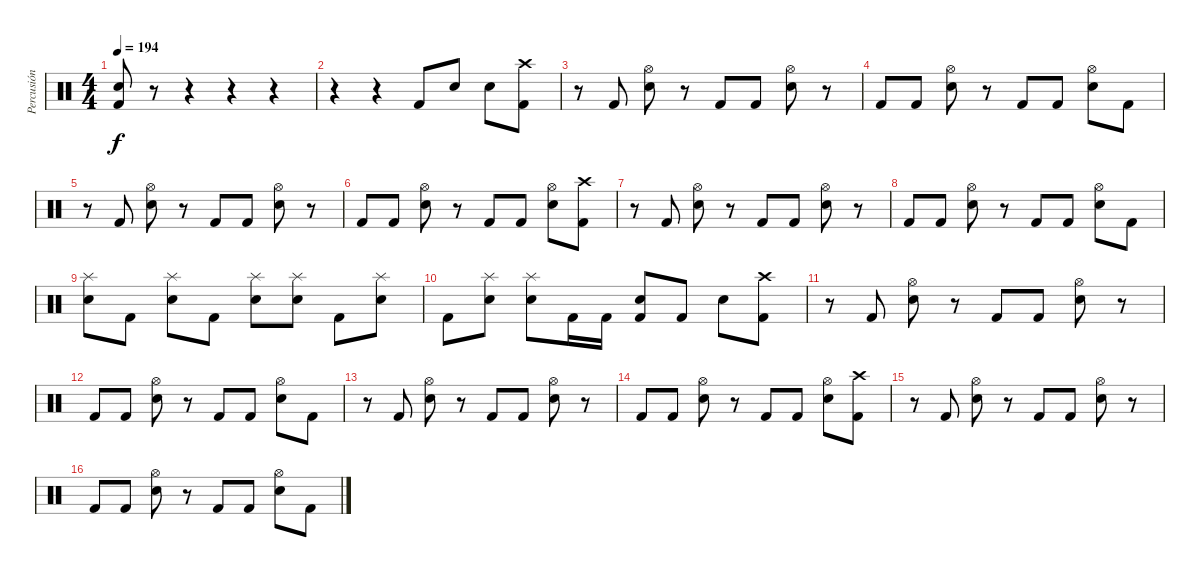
\track ("Percusión" "Percusión") {instrument percussion}
\staff {score}
\articulation defaults
\ts (4 4)
\tempo 194
\clef neutral
\ks c
("Kick (hit) 2" "Snare (hit) 2").8{dy f} r.8 r.4 r.4 r.4 |
r.4 r.4 "Kick (hit) 2".8 "Snare (hit) 2".8 "Snare (hit) 2".8 ("Kick (hit) 2" "Crash high (hit)").8 |
r.8 "Kick (hit) 2".8 ("Snare (hit) 2" "Hi-Hat (open)").8 r.8 "Kick (hit) 2".8 "Kick (hit) 2".8 ("Snare (hit) 2" "Hi-Hat (open)").8 r.8 |
"Kick (hit) 2".8 "Kick (hit) 2".8 ("Snare (hit) 2" "Hi-Hat (open)").8 r.8 "Kick (hit) 2".8 "Kick (hit) 2".8 ("Snare (hit) 2" "Hi-Hat (open)").8 "Kick (hit) 2".8 |
r.8 "Kick (hit) 2".8 ("Snare (hit) 2" "Hi-Hat (open)").8 r.8 "Kick (hit) 2".8 "Kick (hit) 2".8 ("Snare (hit) 2" "Hi-Hat (open)").8 r.8 |
"Kick (hit) 2".8 "Kick (hit) 2".8 ("Snare (hit) 2" "Hi-Hat (open)").8 r.8 "Kick (hit) 2".8 "Kick (hit) 2".8 ("Snare (hit) 2" "Hi-Hat (open)").8 ("Kick (hit) 2" "Crash high (hit)").8 |
r.8 "Kick (hit) 2".8 ("Snare (hit) 2" "Hi-Hat (open)").8 r.8 "Kick (hit) 2".8 "Kick (hit) 2".8 ("Snare (hit) 2" "Hi-Hat (open)").8 r.8 |
"Kick (hit) 2".8 "Kick (hit) 2".8 ("Snare (hit) 2" "Hi-Hat (open)").8 r.8 "Kick (hit) 2".8 "Kick (hit) 2".8 ("Snare (hit) 2" "Hi-Hat (open)").8 "Kick (hit) 2".8 |
("Snare (hit) 2" "Splash (hit)").8 "Kick (hit) 2".8 ("Snare (hit) 2" "Splash (hit)").8 "Kick (hit) 2".8 ("Snare (hit) 2" "Splash (hit)").8 ("Snare (hit) 2" "Splash (hit)").8 "Kick (hit) 2".8 ("Snare (hit) 2" "Splash (hit)").8 |
"Kick (hit) 2".8 ("Snare (hit) 2" "Splash (hit)").8 ("Snare (hit) 2" "Splash (hit)").8 "Kick (hit) 2".16 "Kick (hit) 2".16 ("Kick (hit) 2" "Snare (hit) 2").8 "Kick (hit) 2".8 "Snare (hit) 2".8 ("Kick (hit) 2" "Crash high (hit)").8 |
r.8 "Kick (hit) 2".8 ("Snare (hit) 2" "Hi-Hat (open)").8 r.8 "Kick (hit) 2".8 "Kick (hit) 2".8 ("Snare (hit) 2" "Hi-Hat (open)").8 r.8 |
"Kick (hit) 2".8 "Kick (hit) 2".8 ("Snare (hit) 2" "Hi-Hat (open)").8 r.8 "Kick (hit) 2".8 "Kick (hit) 2".8 ("Snare (hit) 2" "Hi-Hat (open)").8 "Kick (hit) 2".8 |
r.8 "Kick (hit) 2".8 ("Snare (hit) 2" "Hi-Hat (open)").8 r.8 "Kick (hit) 2".8 "Kick (hit) 2".8 ("Snare (hit) 2" "Hi-Hat (open)").8 r.8 |
"Kick (hit) 2".8 "Kick (hit) 2".8 ("Snare (hit) 2" "Hi-Hat (open)").8 r.8 "Kick (hit) 2".8 "Kick (hit) 2".8 ("Snare (hit) 2" "Hi-Hat (open)").8 ("Kick (hit) 2" "Crash high (hit)").8 |
r.8 "Kick (hit) 2".8 ("Snare (hit) 2" "Hi-Hat (open)").8 r.8 "Kick (hit) 2".8 "Kick (hit) 2".8 ("Snare (hit) 2" "Hi-Hat (open)").8 r.8 |
"Kick (hit) 2".8 "Kick (hit) 2".8 ("Snare (hit) 2" "Hi-Hat (open)").8 r.8 "Kick (hit) 2".8 "Kick (hit) 2".8 ("Snare (hit) 2" "Hi-Hat (open)").8 "Kick (hit) 2".8
